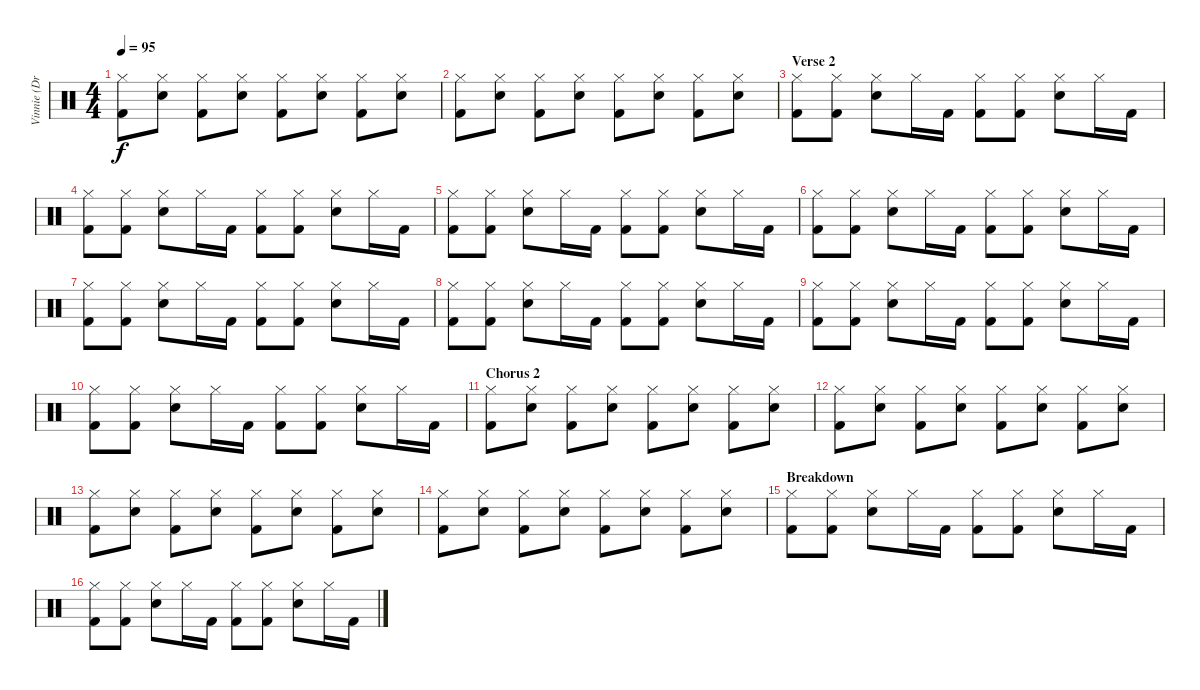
\track ("Vinnie (Drums)" "Vinnie (Dr") {instrument percussion}
\staff {score}
\articulation defaults
\ts (4 4)
\tempo 95
\clef neutral
\ks c
("Kick (hit) 2" "Hi-Hat (closed)").8{dy f} ("Snare (hit) 2" "Hi-Hat (closed)").8 ("Kick (hit) 2" "Hi-Hat (closed)").8 ("Snare (hit) 2" "Hi-Hat (closed)").8 ("Kick (hit) 2" "Hi-Hat (closed)").8 ("Snare (hit) 2" "Hi-Hat (closed)").8 ("Kick (hit) 2" "Hi-Hat (closed)").8 ("Snare (hit) 2" "Hi-Hat (closed)").8 |
("Kick (hit) 2" "Hi-Hat (closed)").8 ("Snare (hit) 2" "Hi-Hat (closed)").8 ("Kick (hit) 2" "Hi-Hat (closed)").8 ("Snare (hit) 2" "Hi-Hat (closed)").8 ("Kick (hit) 2" "Hi-Hat (closed)").8 ("Snare (hit) 2" "Hi-Hat (closed)").8 ("Kick (hit) 2" "Hi-Hat (closed)").8 ("Snare (hit) 2" "Hi-Hat (closed)").8 |
\section ("" "Verse 2")
("Kick (hit) 2" "Hi-Hat (closed)").8 ("Kick (hit) 2" "Hi-Hat (closed)").8 ("Snare (hit) 2" "Hi-Hat (closed)").8 "Hi-Hat (closed)".16 "Kick (hit) 2".16 ("Kick (hit) 2" "Hi-Hat (closed)").8 ("Kick (hit) 2" "Hi-Hat (closed)").8 ("Snare (hit) 2" "Hi-Hat (closed)").8 "Hi-Hat (closed)".16 "Kick (hit) 2".16 |
("Kick (hit) 2" "Hi-Hat (closed)").8 ("Kick (hit) 2" "Hi-Hat (closed)").8 ("Snare (hit) 2" "Hi-Hat (closed)").8 "Hi-Hat (closed)".16 "Kick (hit) 2".16 ("Kick (hit) 2" "Hi-Hat (closed)").8 ("Kick (hit) 2" "Hi-Hat (closed)").8 ("Snare (hit) 2" "Hi-Hat (closed)").8 "Hi-Hat (closed)".16 "Kick (hit) 2".16 |
("Kick (hit) 2" "Hi-Hat (closed)").8 ("Kick (hit) 2" "Hi-Hat (closed)").8 ("Snare (hit) 2" "Hi-Hat (closed)").8 "Hi-Hat (closed)".16 "Kick (hit) 2".16 ("Kick (hit) 2" "Hi-Hat (closed)").8 ("Kick (hit) 2" "Hi-Hat (closed)").8 ("Snare (hit) 2" "Hi-Hat (closed)").8 "Hi-Hat (closed)".16 "Kick (hit) 2".16 |
("Kick (hit) 2" "Hi-Hat (closed)").8 ("Kick (hit) 2" "Hi-Hat (closed)").8 ("Snare (hit) 2" "Hi-Hat (closed)").8 "Hi-Hat (closed)".16 "Kick (hit) 2".16 ("Kick (hit) 2" "Hi-Hat (closed)").8 ("Kick (hit) 2" "Hi-Hat (closed)").8 ("Snare (hit) 2" "Hi-Hat (closed)").8 "Hi-Hat (closed)".16 "Kick (hit) 2".16 |
("Kick (hit) 2" "Hi-Hat (closed)").8 ("Kick (hit) 2" "Hi-Hat (closed)").8 ("Snare (hit) 2" "Hi-Hat (closed)").8 "Hi-Hat (closed)".16 "Kick (hit) 2".16 ("Kick (hit) 2" "Hi-Hat (closed)").8 ("Kick (hit) 2" "Hi-Hat (closed)").8 ("Snare (hit) 2" "Hi-Hat (closed)").8 "Hi-Hat (closed)".16 "Kick (hit) 2".16 |
("Kick (hit) 2" "Hi-Hat (closed)").8 ("Kick (hit) 2" "Hi-Hat (closed)").8 ("Snare (hit) 2" "Hi-Hat (closed)").8 "Hi-Hat (closed)".16 "Kick (hit) 2".16 ("Kick (hit) 2" "Hi-Hat (closed)").8 ("Kick (hit) 2" "Hi-Hat (closed)").8 ("Snare (hit) 2" "Hi-Hat (closed)").8 "Hi-Hat (closed)".16 "Kick (hit) 2".16 |
("Kick (hit) 2" "Hi-Hat (closed)").8 ("Kick (hit) 2" "Hi-Hat (closed)").8 ("Snare (hit) 2" "Hi-Hat (closed)").8 "Hi-Hat (closed)".16 "Kick (hit) 2".16 ("Kick (hit) 2" "Hi-Hat (closed)").8 ("Kick (hit) 2" "Hi-Hat (closed)").8 ("Snare (hit) 2" "Hi-Hat (closed)").8 "Hi-Hat (closed)".16 "Kick (hit) 2".16 |
("Kick (hit) 2" "Hi-Hat (closed)").8 ("Kick (hit) 2" "Hi-Hat (closed)").8 ("Snare (hit) 2" "Hi-Hat (closed)").8 "Hi-Hat (closed)".16 "Kick (hit) 2".16 ("Kick (hit) 2" "Hi-Hat (closed)").8 ("Kick (hit) 2" "Hi-Hat (closed)").8 ("Snare (hit) 2" "Hi-Hat (closed)").8 "Hi-Hat (closed)".16 "Kick (hit) 2".16 |
\section ("" "Chorus 2")
("Kick (hit) 2" "Hi-Hat (closed)").8 ("Snare (hit) 2" "Hi-Hat (closed)").8 ("Kick (hit) 2" "Hi-Hat (closed)").8 ("Snare (hit) 2" "Hi-Hat (closed)").8 ("Kick (hit) 2" "Hi-Hat (closed)").8 ("Snare (hit) 2" "Hi-Hat (closed)").8 ("Kick (hit) 2" "Hi-Hat (closed)").8 ("Snare (hit) 2" "Hi-Hat (closed)").8 |
("Kick (hit) 2" "Hi-Hat (closed)").8 ("Snare (hit) 2" "Hi-Hat (closed)").8 ("Kick (hit) 2" "Hi-Hat (closed)").8 ("Snare (hit) 2" "Hi-Hat (closed)").8 ("Kick (hit) 2" "Hi-Hat (closed)").8 ("Snare (hit) 2" "Hi-Hat (closed)").8 ("Kick (hit) 2" "Hi-Hat (closed)").8 ("Snare (hit) 2" "Hi-Hat (closed)").8 |
("Kick (hit) 2" "Hi-Hat (closed)").8 ("Snare (hit) 2" "Hi-Hat (closed)").8 ("Kick (hit) 2" "Hi-Hat (closed)").8 ("Snare (hit) 2" "Hi-Hat (closed)").8 ("Kick (hit) 2" "Hi-Hat (closed)").8 ("Snare (hit) 2" "Hi-Hat (closed)").8 ("Kick (hit) 2" "Hi-Hat (closed)").8 ("Snare (hit) 2" "Hi-Hat (closed)").8 |
("Kick (hit) 2" "Hi-Hat (closed)").8 ("Snare (hit) 2" "Hi-Hat (closed)").8 ("Kick (hit) 2" "Hi-Hat (closed)").8 ("Snare (hit) 2" "Hi-Hat (closed)").8 ("Kick (hit) 2" "Hi-Hat (closed)").8 ("Snare (hit) 2" "Hi-Hat (closed)").8 ("Kick (hit) 2" "Hi-Hat (closed)").8 ("Snare (hit) 2" "Hi-Hat (closed)").8 |
\section ("" "Breakdown")
("Kick (hit) 2" "Hi-Hat (closed)").8 ("Kick (hit) 2" "Hi-Hat (closed)").8 ("Snare (hit) 2" "Hi-Hat (closed)").8 "Hi-Hat (closed)".16 "Kick (hit) 2".16 ("Kick (hit) 2" "Hi-Hat (closed)").8 ("Kick (hit) 2" "Hi-Hat (closed)").8 ("Snare (hit) 2" "Hi-Hat (closed)").8 "Hi-Hat (closed)".16 "Kick (hit) 2".16 |
("Kick (hit) 2" "Hi-Hat (closed)").8 ("Kick (hit) 2" "Hi-Hat (closed)").8 ("Snare (hit) 2" "Hi-Hat (closed)").8 "Hi-Hat (closed)".16 "Kick (hit) 2".16 ("Kick (hit) 2" "Hi-Hat (closed)").8 ("Kick (hit) 2" "Hi-Hat (closed)").8 ("Snare (hit) 2" "Hi-Hat (closed)").8 "Hi-Hat (closed)".16 "Kick (hit) 2".16
